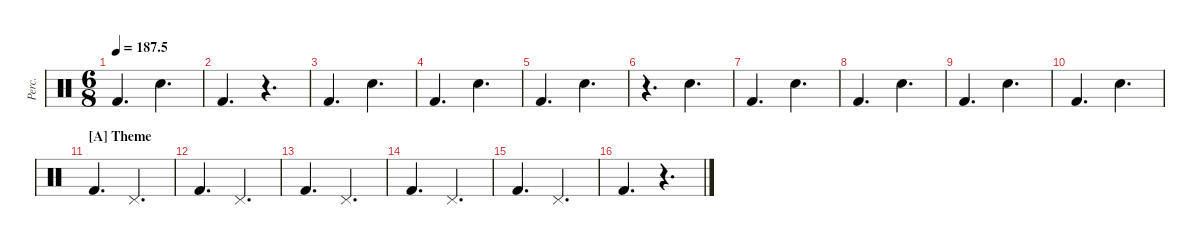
\defaultSystemsLayout 4
\hideDynamics
\bracketExtendMode groupsimilarinstruments
\otherSystemsTrackNameOrientation horizontal
\track ("Percussions" "Perc.") {instrument percussion}
\staff {score}
\articulation defaults
\ts (6 8)
\tempo
187.5
\accidentals auto
\clef neutral
\ottava regular
\simile none
\ks c "Kick (hit) 2".4{d dy mf beam Up} "Snare (hit) 2".4{d beam Down}
|
"Kick (hit) 2".4{d beam Up} r.4{d beam Up} |
"Kick (hit) 2".4{d beam Up} "Snare (hit) 2".4{d beam Down} |
"Kick (hit) 2".4{d beam Up} "Snare (hit) 2".4{d beam Down} |
"Kick (hit) 2".4{d beam Up} "Snare (hit) 2".4{d beam Down} |
r.4{d beam Down} "Snare (hit) 2".4{d beam Down} |
"Kick (hit) 2".4{d beam Up} "Snare (hit) 2".4{d beam Down} |
"Kick (hit) 2".4{d beam Up} "Snare (hit) 2".4{d beam Down} |
"Kick (hit) 2".4{d beam Up} "Snare (hit) 2".4{d beam Down} |
"Kick (hit) 2".4{d beam Up} "Snare (hit) 2".4{d beam Down} |
\section ("A" "Theme")
"Kick (hit) 2".4{d beam Up} "Pedal Hi-Hat (hit)".4{d beam Up} |
"Kick (hit) 2".4{d beam Up} "Pedal Hi-Hat (hit)".4{d beam Up} |
"Kick (hit) 2".4{d beam Up} "Pedal Hi-Hat (hit)".4{d beam Up} |
"Kick (hit) 2".4{d beam Up} "Pedal Hi-Hat (hit)".4{d beam Up} |
"Kick (hit) 2".4{d beam Up} "Pedal Hi-Hat (hit)".4{d beam Up} |
"Kick (hit) 2".4{d beam Up} r.4{d beam Up}
